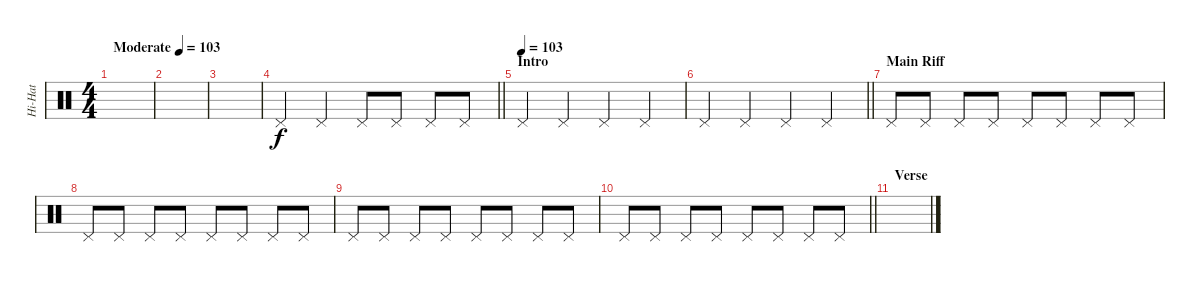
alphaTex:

\track ("Hi-Hat" "Hi-Hat") {instrument percussion}
\staff {score}
\articulation defaults
\ts (4 4)
\tempo (103 "Moderate")
\clef neutral
\ks c
|
|
|
\barLineRight lightlight "Pedal Hi-Hat (hit)".4 "Pedal Hi-Hat (hit)".4 "Pedal Hi-Hat (hit)".8 "Pedal Hi-Hat (hit)".8 "Pedal Hi-Hat (hit)".8 "Pedal Hi-Hat (hit)".8
|
\section ("" "Intro")
\tempo (103)
"Pedal Hi-Hat (hit)".4 "Pedal Hi-Hat (hit)".4 "Pedal Hi-Hat (hit)".4 "Pedal Hi-Hat (hit)".4 |
\barLineRight lightlight "Pedal Hi-Hat (hit)".4 "Pedal Hi-Hat (hit)".4 "Pedal Hi-Hat (hit)".4 "Pedal Hi-Hat (hit)".4
|
\section ("" "Main Riff")
"Pedal Hi-Hat (hit)".8 "Pedal Hi-Hat (hit)".8 "Pedal Hi-Hat (hit)".8 "Pedal Hi-Hat (hit)".8 "Pedal Hi-Hat (hit)".8 "Pedal Hi-Hat (hit)".8 "Pedal Hi-Hat (hit)".8 "Pedal Hi-Hat (hit)".8 |
"Pedal Hi-Hat (hit)".8 "Pedal Hi-Hat (hit)".8 "Pedal Hi-Hat (hit)".8 "Pedal Hi-Hat (hit)".8 "Pedal Hi-Hat (hit)".8 "Pedal Hi-Hat (hit)".8 "Pedal Hi-Hat (hit)".8 "Pedal Hi-Hat (hit)".8 |
"Pedal Hi-Hat (hit)".8 "Pedal Hi-Hat (hit)".8 "Pedal Hi-Hat (hit)".8 "Pedal Hi-Hat (hit)".8 "Pedal Hi-Hat (hit)".8 "Pedal Hi-Hat (hit)".8 "Pedal Hi-Hat (hit)".8 "Pedal Hi-Hat (hit)".8 |
\barLineRight lightlight "Pedal Hi-Hat (hit)".8 "Pedal Hi-Hat (hit)".8 "Pedal Hi-Hat (hit)".8 "Pedal Hi-Hat (hit)".8 "Pedal Hi-Hat (hit)".8 "Pedal Hi-Hat (hit)".8 "Pedal Hi-Hat (hit)".8 "Pedal Hi-Hat (hit)".8
|
\section ("" "Verse")
